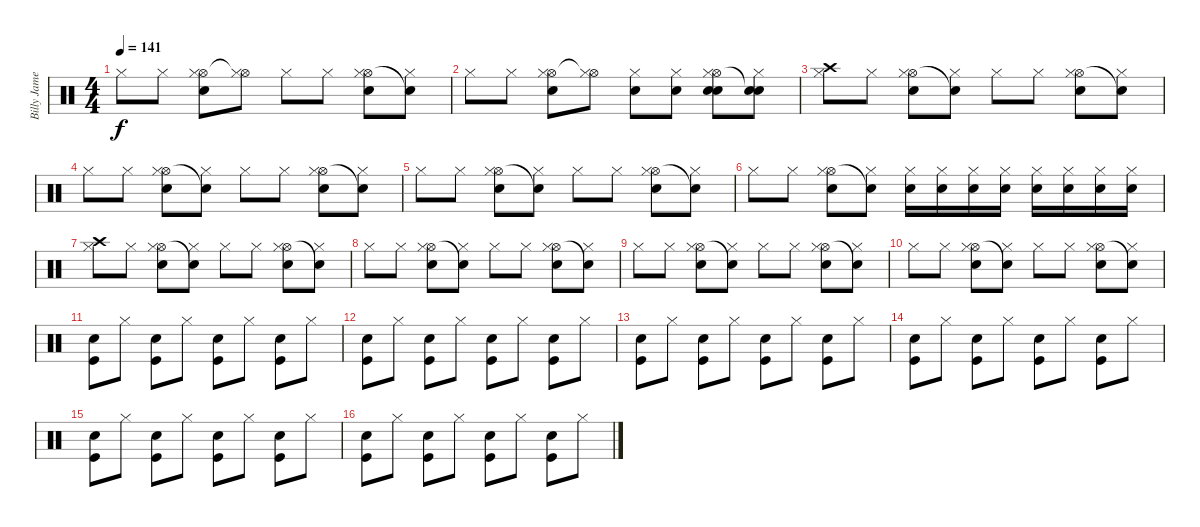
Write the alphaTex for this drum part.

\track ("Billy James (Drums)" "Billy Jame") {instrument percussion}
\staff {score}
\articulation defaults
\ts (4 4)
\tempo 141
\clef neutral
\ks c "Hi-Hat (closed)".8{dy f} "Hi-Hat (closed)".8
("Hi-Hat (open)" "Snare (hit) 2" "Hi-Hat (closed)").8 ("Hi-Hat (open)"{t} "Hi-Hat (closed)").8 "Hi-Hat (closed)".8 "Hi-Hat (closed)".8 ("Hi-Hat (open)" "Snare (hit) 2" "Hi-Hat (closed)").8 ("Snare (hit)"{t} "Hi-Hat (closed)").8 |
"Hi-Hat (closed)".8 "Hi-Hat (closed)".8 ("Hi-Hat (open)" "Snare (hit) 2" "Hi-Hat (closed)").8 ("Hi-Hat (open)"{t} "Hi-Hat (closed)").8 ("Hi-Hat (closed)" "Snare (hit) 2").8 ("Hi-Hat (closed)" "Snare (hit) 2").8 ("Hi-Hat (open)" "Snare (hit) 2" "Hi-Hat (closed)" "Snare (hit) 2").8 ("Snare (hit)"{t} "Hi-Hat (closed)" "Snare (hit) 2").8 |
("Crash high (hit)" "Hi-Hat (closed)").8 "Hi-Hat (closed)".8 ("Hi-Hat (open)" "Snare (hit) 2" "Hi-Hat (closed)").8 ("Snare (hit)"{t} "Hi-Hat (closed)").8 "Hi-Hat (closed)".8 "Hi-Hat (closed)".8 ("Hi-Hat (open)" "Snare (hit) 2" "Hi-Hat (closed)").8 ("Snare (hit)"{t} "Hi-Hat (closed)").8 |
"Hi-Hat (closed)".8 "Hi-Hat (closed)".8 ("Hi-Hat (open)" "Snare (hit) 2" "Hi-Hat (closed)").8 ("Snare (hit)"{t} "Hi-Hat (closed)").8 "Hi-Hat (closed)".8 "Hi-Hat (closed)".8 ("Hi-Hat (open)" "Snare (hit) 2" "Hi-Hat (closed)").8 ("Snare (hit)"{t} "Hi-Hat (closed)").8 |
"Hi-Hat (closed)".8 "Hi-Hat (closed)".8 ("Hi-Hat (open)" "Snare (hit) 2" "Hi-Hat (closed)").8 ("Snare (hit)"{t} "Hi-Hat (closed)").8 "Hi-Hat (closed)".8 "Hi-Hat (closed)".8 ("Hi-Hat (open)" "Snare (hit) 2" "Hi-Hat (closed)").8 ("Snare (hit)"{t} "Hi-Hat (closed)").8 |
"Hi-Hat (closed)".8 "Hi-Hat (closed)".8 ("Hi-Hat (open)" "Snare (hit) 2" "Hi-Hat (closed)").8 ("Snare (hit)"{t} "Hi-Hat (closed)").8 ("Hi-Hat (closed)" "Snare (hit) 2").16 ("Hi-Hat (closed)" "Snare (hit) 2").16 ("Hi-Hat (closed)" "Snare (hit) 2").16 ("Hi-Hat (closed)" "Snare (hit) 2").16 ("Hi-Hat (closed)" "Snare (hit) 2").16 ("Hi-Hat (closed)" "Snare (hit) 2").16 ("Hi-Hat (closed)" "Snare (hit) 2").16 ("Hi-Hat (closed)" "Snare (hit) 2").16 |
("Crash high (hit)" "Hi-Hat (closed)").8 "Hi-Hat (closed)".8 ("Hi-Hat (open)" "Snare (hit) 2" "Hi-Hat (closed)").8 ("Snare (hit)"{t} "Hi-Hat (closed)").8 "Hi-Hat (closed)".8 "Hi-Hat (closed)".8 ("Hi-Hat (open)" "Snare (hit) 2" "Hi-Hat (closed)").8 ("Snare (hit)"{t} "Hi-Hat (closed)").8 |
"Hi-Hat (closed)".8 "Hi-Hat (closed)".8 ("Hi-Hat (open)" "Snare (hit) 2" "Hi-Hat (closed)").8 ("Snare (hit)"{t} "Hi-Hat (closed)").8 "Hi-Hat (closed)".8 "Hi-Hat (closed)".8 ("Hi-Hat (open)" "Snare (hit) 2" "Hi-Hat (closed)").8 ("Snare (hit)"{t} "Hi-Hat (closed)").8 |
"Hi-Hat (closed)".8 "Hi-Hat (closed)".8 ("Hi-Hat (open)" "Snare (hit) 2" "Hi-Hat (closed)").8 ("Snare (hit)"{t} "Hi-Hat (closed)").8 "Hi-Hat (closed)".8 "Hi-Hat (closed)".8 ("Hi-Hat (open)" "Snare (hit) 2" "Hi-Hat (closed)").8 ("Snare (hit)"{t} "Hi-Hat (closed)").8 |
"Hi-Hat (closed)".8 "Hi-Hat (closed)".8 ("Hi-Hat (open)" "Snare (hit) 2" "Hi-Hat (closed)").8 ("Snare (hit)"{t} "Hi-Hat (closed)").8 "Hi-Hat (closed)".8 "Hi-Hat (closed)".8 ("Hi-Hat (open)" "Snare (hit) 2" "Hi-Hat (closed)").8 ("Snare (hit)"{t} "Hi-Hat (closed)").8 |
("Kick (hit)" "Snare (hit) 2").8 "Hi-Hat (closed)".8 ("Kick (hit)" "Snare (hit) 2").8 "Hi-Hat (closed)".8 ("Kick (hit)" "Snare (hit) 2").8 "Hi-Hat (closed)".8 ("Kick (hit)" "Snare (hit) 2").8 "Hi-Hat (closed)".8 |
("Kick (hit)" "Snare (hit) 2").8 "Hi-Hat (closed)".8 ("Kick (hit)" "Snare (hit) 2").8 "Hi-Hat (closed)".8 ("Kick (hit)" "Snare (hit) 2").8 "Hi-Hat (closed)".8 ("Kick (hit)" "Snare (hit) 2").8 "Hi-Hat (closed)".8 |
("Kick (hit)" "Snare (hit) 2").8 "Hi-Hat (closed)".8 ("Kick (hit)" "Snare (hit) 2").8 "Hi-Hat (closed)".8 ("Kick (hit)" "Snare (hit) 2").8 "Hi-Hat (closed)".8 ("Kick (hit)" "Snare (hit) 2").8 "Hi-Hat (closed)".8 |
("Kick (hit)" "Snare (hit) 2").8 "Hi-Hat (closed)".8 ("Kick (hit)" "Snare (hit) 2").8 "Hi-Hat (closed)".8 ("Kick (hit)" "Snare (hit) 2").8 "Hi-Hat (closed)".8 ("Kick (hit)" "Snare (hit) 2").8 "Hi-Hat (closed)".8 |
("Kick (hit)" "Snare (hit) 2").8 "Hi-Hat (closed)".8 ("Kick (hit)" "Snare (hit) 2").8 "Hi-Hat (closed)".8 ("Kick (hit)" "Snare (hit) 2").8 "Hi-Hat (closed)".8 ("Kick (hit)" "Snare (hit) 2").8 "Hi-Hat (closed)".8 |
("Kick (hit)" "Snare (hit) 2").8 "Hi-Hat (closed)".8 ("Kick (hit)" "Snare (hit) 2").8 "Hi-Hat (closed)".8 ("Kick (hit)" "Snare (hit) 2").8 "Hi-Hat (closed)".8 ("Kick (hit)" "Snare (hit) 2").8 "Hi-Hat (closed)".8
